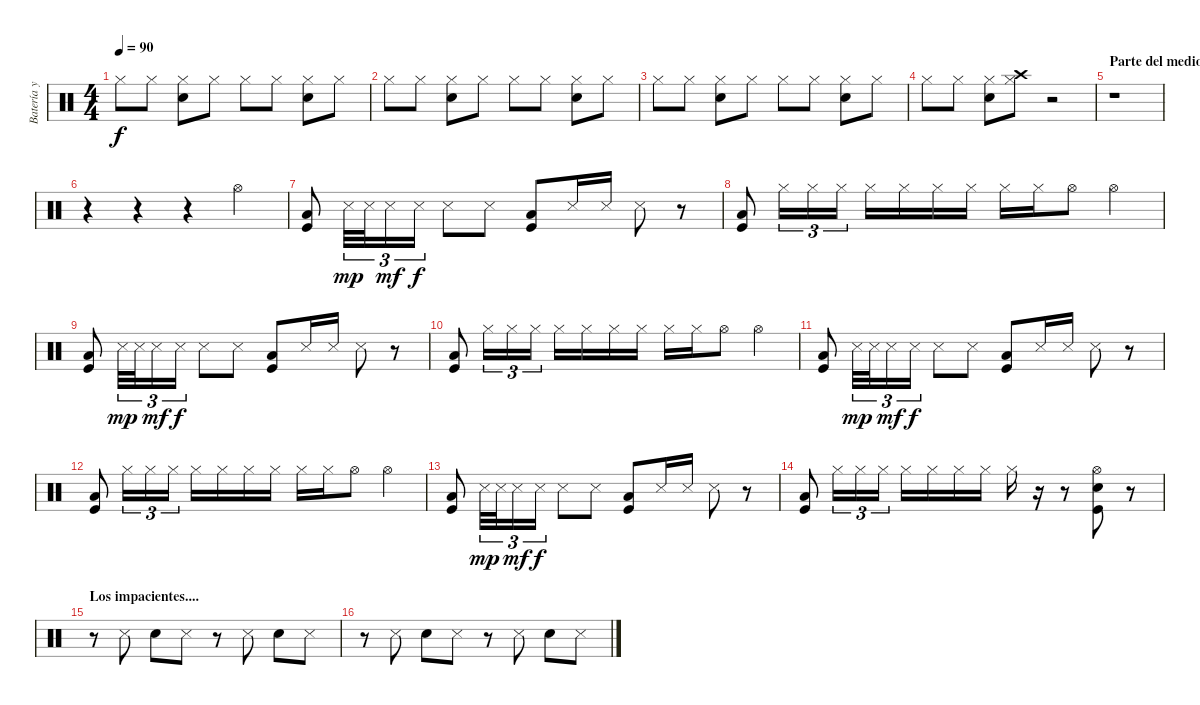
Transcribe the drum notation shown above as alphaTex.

\track ("Batería y risa" "Batería y ") {instrument percussion}
\staff {score}
\articulation defaults
\ts (4 4)
\tempo 90
\clef neutral
\ks c "Hi-Hat (closed)".8{dy f} "Hi-Hat (closed)".8
("Hi-Hat (closed)" "Snare (hit) 2").8 "Hi-Hat (closed)".8 "Hi-Hat (closed)".8 "Hi-Hat (closed)".8 ("Hi-Hat (closed)" "Snare (hit) 2").8 "Hi-Hat (closed)".8 |
"Hi-Hat (closed)".8 "Hi-Hat (closed)".8 ("Hi-Hat (closed)" "Snare (hit) 2").8 "Hi-Hat (closed)".8 "Hi-Hat (closed)".8 "Hi-Hat (closed)".8 ("Hi-Hat (closed)" "Snare (hit) 2").8 "Hi-Hat (closed)".8 |
"Hi-Hat (closed)".8 "Hi-Hat (closed)".8 ("Hi-Hat (closed)" "Snare (hit) 2").8 "Hi-Hat (closed)".8 "Hi-Hat (closed)".8 "Hi-Hat (closed)".8 ("Hi-Hat (closed)" "Snare (hit) 2").8 "Hi-Hat (closed)".8 |
"Hi-Hat (closed)".8 "Hi-Hat (closed)".8 ("Hi-Hat (closed)" "Snare (hit) 2").8 ("Hi-Hat (closed)" "Crash high (hit)").8 r.2 |
\section ("" "Parte del medio 2")
r.1 |
r.4 r.4 r.4 "Hi-Hat (open)".4 |
("Kick (hit)" "Low Floor Tom (hit)").8 "Snare (side stick) 3".32{tu (3 2) dy mp} "Snare (side stick) 3".32{tu (3 2)} "Snare (side stick) 3".16{tu (3 2) dy mf} "Snare (side stick) 3".16{tu (3 2) dy f} "Snare (side stick) 3".8 "Snare (side stick) 3".8 ("Kick (hit)" "Low Floor Tom (hit)").8 "Snare (side stick) 3".16 "Snare (side stick) 3".16 "Snare (side stick) 3".8 r.8 |
("Kick (hit)" "Low Floor Tom (hit)").8 "Hi-Hat (closed)".16{tu (3 2)} "Hi-Hat (closed)".16{tu (3 2)} "Hi-Hat (closed)".16{tu (3 2)} "Hi-Hat (closed)".16 "Hi-Hat (closed)".16 "Hi-Hat (closed)".16 "Hi-Hat (closed)".16 "Hi-Hat (closed)".16 "Hi-Hat (closed)".16 "Hi-Hat (open)".8 "Hi-Hat (open)".4 |
("Kick (hit)" "Low Floor Tom (hit)").8 "Snare (side stick) 3".32{tu (3 2) dy mp} "Snare (side stick) 3".32{tu (3 2)} "Snare (side stick) 3".16{tu (3 2) dy mf} "Snare (side stick) 3".16{tu (3 2) dy f} "Snare (side stick) 3".8 "Snare (side stick) 3".8 ("Kick (hit)" "Low Floor Tom (hit)").8 "Snare (side stick) 3".16 "Snare (side stick) 3".16 "Snare (side stick) 3".8 r.8 |
("Kick (hit)" "Low Floor Tom (hit)").8 "Hi-Hat (closed)".16{tu (3 2)} "Hi-Hat (closed)".16{tu (3 2)} "Hi-Hat (closed)".16{tu (3 2)} "Hi-Hat (closed)".16 "Hi-Hat (closed)".16 "Hi-Hat (closed)".16 "Hi-Hat (closed)".16 "Hi-Hat (closed)".16 "Hi-Hat (closed)".16 "Hi-Hat (open)".8 "Hi-Hat (open)".4 |
("Kick (hit)" "Low Floor Tom (hit)").8 "Snare (side stick) 3".32{tu (3 2) dy mp} "Snare (side stick) 3".32{tu (3 2)} "Snare (side stick) 3".16{tu (3 2) dy mf} "Snare (side stick) 3".16{tu (3 2) dy f} "Snare (side stick) 3".8 "Snare (side stick) 3".8 ("Kick (hit)" "Low Floor Tom (hit)").8 "Snare (side stick) 3".16 "Snare (side stick) 3".16 "Snare (side stick) 3".8 r.8 |
("Kick (hit)" "Low Floor Tom (hit)").8 "Hi-Hat (closed)".16{tu (3 2)} "Hi-Hat (closed)".16{tu (3 2)} "Hi-Hat (closed)".16{tu (3 2)} "Hi-Hat (closed)".16 "Hi-Hat (closed)".16 "Hi-Hat (closed)".16 "Hi-Hat (closed)".16 "Hi-Hat (closed)".16 "Hi-Hat (closed)".16 "Hi-Hat (open)".8 "Hi-Hat (open)".4 |
("Kick (hit)" "Low Floor Tom (hit)").8 "Snare (side stick) 3".32{tu (3 2) dy mp} "Snare (side stick) 3".32{tu (3 2)} "Snare (side stick) 3".16{tu (3 2) dy mf} "Snare (side stick) 3".16{tu (3 2) dy f} "Snare (side stick) 3".8 "Snare (side stick) 3".8 ("Kick (hit)" "Low Floor Tom (hit)").8 "Snare (side stick) 3".16 "Snare (side stick) 3".16 "Snare (side stick) 3".8 r.8 |
("Kick (hit)" "Low Floor Tom (hit)").8 "Hi-Hat (closed)".16{tu (3 2)} "Hi-Hat (closed)".16{tu (3 2)} "Hi-Hat (closed)".16{tu (3 2)} "Hi-Hat (closed)".16 "Hi-Hat (closed)".16 "Hi-Hat (closed)".16 "Hi-Hat (closed)".16 "Hi-Hat (closed)".16 r.16 r.8 ("Kick (hit)" "Electric Snare (hit)" "Hi-Hat (open)").8 r.8 |
\section ("" "Los impacientes....")
r.8 "Snare (side stick) 3".8 "Snare (hit) 2".8 "Snare (side stick) 3".8 r.8 "Snare (side stick) 3".8 "Snare (hit) 2".8 "Snare (side stick) 3".8 |
r.8 "Snare (side stick) 3".8 "Snare (hit) 2".8 "Snare (side stick) 3".8 r.8 "Snare (side stick) 3".8 "Snare (hit) 2".8 "Snare (side stick) 3".8
